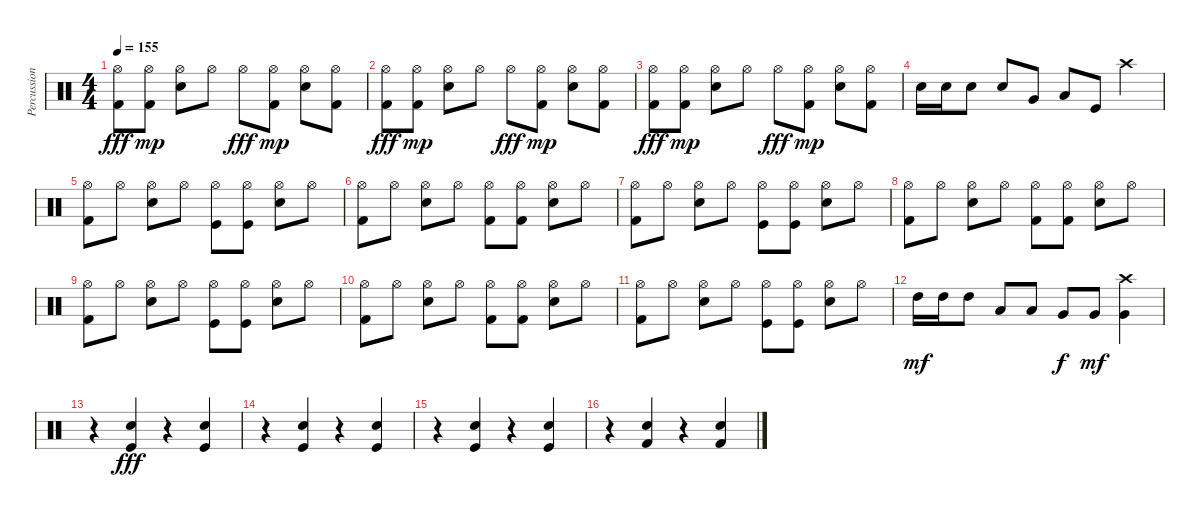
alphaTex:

\track ("Percussion" "Percussion") {instrument percussion}
\staff {score}
\articulation defaults
\ts (4 4)
\tempo 155
\clef neutral
\ks c
("Kick (hit) 2" "Hi-Hat (open)").8{dy fff} ("Kick (hit) 2" "Hi-Hat (open)").8{dy mp} ("Snare (hit) 2" "Hi-Hat (open)").8 "Hi-Hat (open)".8 "Hi-Hat (open)".8{dy fff} ("Kick (hit) 2" "Hi-Hat (open)").8{dy mp} ("Snare (hit) 2" "Hi-Hat (open)").8 ("Kick (hit) 2" "Hi-Hat (open)").8 |
("Kick (hit) 2" "Hi-Hat (open)").8{dy fff} ("Kick (hit) 2" "Hi-Hat (open)").8{dy mp} ("Snare (hit) 2" "Hi-Hat (open)").8 "Hi-Hat (open)".8 "Hi-Hat (open)".8{dy fff} ("Kick (hit) 2" "Hi-Hat (open)").8{dy mp} ("Snare (hit) 2" "Hi-Hat (open)").8 ("Kick (hit) 2" "Hi-Hat (open)").8 |
("Kick (hit) 2" "Hi-Hat (open)").8{dy fff} ("Kick (hit) 2" "Hi-Hat (open)").8{dy mp} ("Snare (hit) 2" "Hi-Hat (open)").8 "Hi-Hat (open)".8 "Hi-Hat (open)".8{dy fff} ("Kick (hit) 2" "Hi-Hat (open)").8{dy mp} ("Snare (hit) 2" "Hi-Hat (open)").8 ("Kick (hit) 2" "Hi-Hat (open)").8 |
"Snare (hit) 2".16 "Snare (hit) 2".16 "Snare (hit) 2".8 "Snare (hit) 2".8 "Very Low Tom (hit)".8 "Low Floor Tom (hit)".8 "Kick (hit)".8 "Crash high (hit)".4 |
("Kick (hit) 2" "Hi-Hat (open)").8 "Hi-Hat (open)".8 ("Snare (hit) 2" "Hi-Hat (open)").8 "Hi-Hat (open)".8 ("Kick (hit)" "Hi-Hat (open)").8 ("Kick (hit)" "Hi-Hat (open)").8 ("Snare (hit) 2" "Hi-Hat (open)").8 "Hi-Hat (open)".8 |
("Kick (hit) 2" "Hi-Hat (open)").8 "Hi-Hat (open)".8 ("Snare (hit) 2" "Hi-Hat (open)").8 "Hi-Hat (open)".8 ("Kick (hit) 2" "Hi-Hat (open)").8 ("Kick (hit) 2" "Hi-Hat (open)").8 ("Snare (hit) 2" "Hi-Hat (open)").8 "Hi-Hat (open)".8 |
("Kick (hit) 2" "Hi-Hat (open)").8 "Hi-Hat (open)".8 ("Snare (hit) 2" "Hi-Hat (open)").8 "Hi-Hat (open)".8 ("Kick (hit)" "Hi-Hat (open)").8 ("Kick (hit)" "Hi-Hat (open)").8 ("Snare (hit) 2" "Hi-Hat (open)").8 "Hi-Hat (open)".8 |
("Kick (hit) 2" "Hi-Hat (open)").8 "Hi-Hat (open)".8 ("Snare (hit) 2" "Hi-Hat (open)").8 "Hi-Hat (open)".8 ("Kick (hit) 2" "Hi-Hat (open)").8 ("Kick (hit) 2" "Hi-Hat (open)").8 ("Snare (hit) 2" "Hi-Hat (open)").8 "Hi-Hat (open)".8 |
("Kick (hit) 2" "Hi-Hat (open)").8 "Hi-Hat (open)".8 ("Snare (hit) 2" "Hi-Hat (open)").8 "Hi-Hat (open)".8 ("Kick (hit)" "Hi-Hat (open)").8 ("Kick (hit)" "Hi-Hat (open)").8 ("Snare (hit) 2" "Hi-Hat (open)").8 "Hi-Hat (open)".8 |
("Kick (hit) 2" "Hi-Hat (open)").8 "Hi-Hat (open)".8 ("Snare (hit) 2" "Hi-Hat (open)").8 "Hi-Hat (open)".8 ("Kick (hit) 2" "Hi-Hat (open)").8 ("Kick (hit) 2" "Hi-Hat (open)").8 ("Snare (hit) 2" "Hi-Hat (open)").8 "Hi-Hat (open)".8 |
("Kick (hit) 2" "Hi-Hat (open)").8 "Hi-Hat (open)".8 ("Snare (hit) 2" "Hi-Hat (open)").8 "Hi-Hat (open)".8 ("Kick (hit)" "Hi-Hat (open)").8 ("Kick (hit)" "Hi-Hat (open)").8 ("Snare (hit) 2" "Hi-Hat (open)").8 "Hi-Hat (open)".8 |
"High Tom (hit)".16{dy mf} "High Tom (hit)".16 "High Tom (hit)".8 "Low Tom (hit)".8 "Low Tom (hit)".8 "Very Low Tom (hit)".8{dy f} "Very Low Tom (hit)".8{dy mf} ("Very Low Tom (hit)" "Crash high (hit)").4 |
r.4 ("Kick (hit)" "Snare (hit) 2").4{dy fff} r.4 ("Kick (hit)" "Snare (hit) 2").4 |
r.4 ("Kick (hit)" "Snare (hit) 2").4 r.4 ("Kick (hit)" "Snare (hit) 2").4 |
r.4 ("Kick (hit)" "Snare (hit) 2").4 r.4 ("Kick (hit)" "Snare (hit) 2").4 |
r.4 ("Kick (hit) 2" "Snare (hit) 2").4 r.4 ("Kick (hit) 2" "Snare (hit) 2").4
